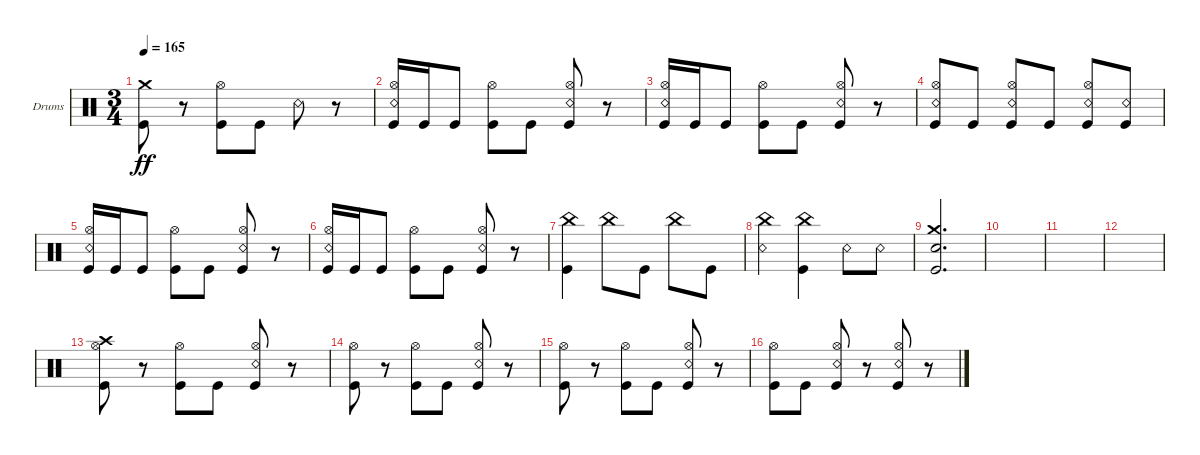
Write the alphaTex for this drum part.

\bracketExtendMode groupsimilarinstruments
\firstSystemTrackNameOrientation horizontal
\otherSystemsTrackNameOrientation horizontal
\track ("Kaleb - Drums" "Drums") {instrument percussion}
\staff {score}
\articulation defaults
\ts (3 4)
\tempo 165
\clef neutral
\ks c
("Kick (hit)" "Crash medium (hit)").8{dy ff} r.8 ("Kick (hit)" "Hi-Hat (open)").8 "Kick (hit)".8 "Snare (rim shot)".8 r.8 |
("Kick (hit)" "Hi-Hat (open)" "Snare (rim shot)").16 "Kick (hit)".16 "Kick (hit)".8 ("Kick (hit)" "Hi-Hat (open)").8 "Kick (hit)".8 ("Kick (hit)" "Hi-Hat (open)" "Snare (rim shot)").8 r.8 |
("Kick (hit)" "Hi-Hat (open)" "Snare (rim shot)").16 "Kick (hit)".16 "Kick (hit)".8 ("Kick (hit)" "Hi-Hat (open)").8 "Kick (hit)".8 ("Kick (hit)" "Hi-Hat (open)" "Snare (rim shot)").8 r.8 |
("Kick (hit)" "Snare (rim shot)" "Hi-Hat (open)").8 "Kick (hit)".8 ("Kick (hit)" "Snare (rim shot)" "Hi-Hat (open)").8 "Kick (hit)".8 ("Kick (hit)" "Snare (rim shot)" "Hi-Hat (open)").8 ("Kick (hit)" "Snare (rim shot)").8 |
("Kick (hit)" "Hi-Hat (open)" "Snare (rim shot)").16 "Kick (hit)".16 "Kick (hit)".8 ("Kick (hit)" "Hi-Hat (open)").8 "Kick (hit)".8 ("Kick (hit)" "Hi-Hat (open)" "Snare (rim shot)").8 r.8 |
("Kick (hit)" "Hi-Hat (open)" "Snare (rim shot)").16 "Kick (hit)".16 "Kick (hit)".8 ("Kick (hit)" "Hi-Hat (open)").8 "Kick (hit)".8 ("Kick (hit)" "Hi-Hat (open)" "Snare (rim shot)").8 r.8 |
("China (hit)" "Kick (hit)").4 "China (hit)".8 "Kick (hit)".8 "China (hit)".8 "Kick (hit)".8 |
("China (hit)" "Snare (rim shot)").4 ("China (hit)" "Kick (hit)").4 "Snare (rim shot)".8 "Snare (rim shot)".8 |
("Crash medium (hit)" "Kick (hit)" "Snare (hit) 2").2{d} |
|
|
|
("Kick (hit)" "Hi-Hat (open)" "Crash high (hit)").8 r.8 ("Kick (hit)" "Hi-Hat (open)").8 "Kick (hit)".8 ("Kick (hit)" "Snare (rim shot)" "Hi-Hat (open)").8 r.8 |
("Kick (hit)" "Hi-Hat (open)").8 r.8 ("Kick (hit)" "Hi-Hat (open)").8 "Kick (hit)".8 ("Kick (hit)" "Hi-Hat (open)" "Snare (rim shot)").8 r.8 |
("Kick (hit)" "Hi-Hat (open)").8 r.8 ("Kick (hit)" "Hi-Hat (open)").8 "Kick (hit)".8 ("Kick (hit)" "Hi-Hat (open)" "Snare (rim shot)").8 r.8 |
("Kick (hit)" "Hi-Hat (open)").8 "Kick (hit)".8 ("Kick (hit)" "Hi-Hat (open)" "Snare (rim shot)").8 r.8 ("Kick (hit)" "Hi-Hat (open)" "Snare (rim shot)").8 r.8
